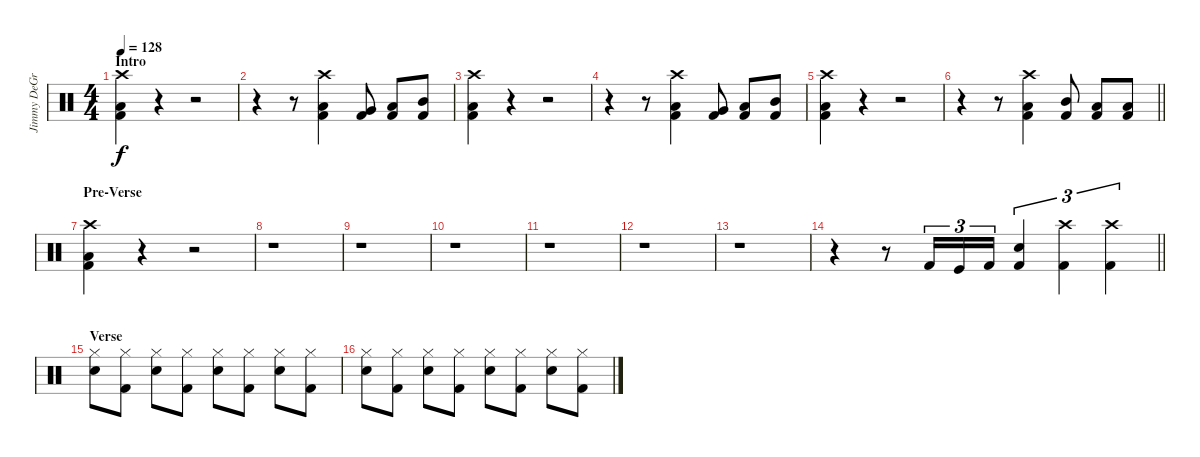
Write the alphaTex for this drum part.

\track ("Jimmy DeGrasso" "Jimmy DeGr") {instrument percussion}
\staff {score}
\articulation defaults
\ts (4 4)
\section ("" "Intro")
\tempo 128
\clef neutral
\ks c
("Crash high (hit)" "Low Floor Tom (hit)" "Kick (hit) 2").4{dy f} r.4 r.2 |
r.4 r.8 ("Crash high (hit)" "Low Floor Tom (hit)" "Kick (hit) 2").4 ("Very Low Tom (hit)" "Kick (hit) 2").8 ("Low Tom (hit)" "Kick (hit) 2").8 ("Mid Tom (hit)" "Kick (hit) 2").8 |
("Crash high (hit)" "Low Floor Tom (hit)" "Kick (hit) 2").4 r.4 r.2 |
r.4 r.8 ("Crash high (hit)" "Low Floor Tom (hit)" "Kick (hit) 2").4 ("Very Low Tom (hit)" "Kick (hit) 2").8 ("Low Tom (hit)" "Kick (hit) 2").8 ("Mid Tom (hit)" "Kick (hit) 2").8 |
("Crash high (hit)" "Low Floor Tom (hit)" "Kick (hit) 2").4 r.4 r.2 |
\barLineRight lightlight
r.4 r.8 ("Crash high (hit)" "Low Floor Tom (hit)" "Kick (hit) 2").4 ("Mid Tom (hit)" "Kick (hit) 2").8 ("Low Tom (hit)" "Kick (hit) 2").8 ("Low Floor Tom (hit)" "Kick (hit) 2").8 |
\section ("" "Pre-Verse")
("Crash high (hit)" "Low Floor Tom (hit)" "Kick (hit) 2").4 r.4 r.2 |
r.1 |
r.1 |
r.1 |
r.1 |
r.1 |
r.1 |
\barLineRight lightlight
r.4 r.8 "Kick (hit) 2".16{tu (3 2)} "Kick (hit)".16{tu (3 2)} "Kick (hit) 2".16{tu (3 2)} ("Snare (hit) 2" "Kick (hit) 2").4{tu (3 2)} ("Crash high (hit)" "Kick (hit) 2").4{tu (3 2)} ("Crash high (hit)" "Kick (hit) 2").4{tu (3 2)} |
\section ("" "Verse")
("Hi-Hat (closed)" "Snare (hit) 2").8 ("Hi-Hat (closed)" "Kick (hit) 2").8 ("Hi-Hat (closed)" "Snare (hit) 2").8 ("Hi-Hat (closed)" "Kick (hit) 2").8 ("Hi-Hat (closed)" "Snare (hit) 2").8 ("Hi-Hat (closed)" "Kick (hit) 2").8 ("Hi-Hat (closed)" "Snare (hit) 2").8 ("Hi-Hat (closed)" "Kick (hit) 2").8 |
("Hi-Hat (closed)" "Snare (hit) 2").8 ("Hi-Hat (closed)" "Kick (hit) 2").8 ("Hi-Hat (closed)" "Snare (hit) 2").8 ("Hi-Hat (closed)" "Kick (hit) 2").8 ("Hi-Hat (closed)" "Snare (hit) 2").8 ("Hi-Hat (closed)" "Kick (hit) 2").8 ("Hi-Hat (closed)" "Snare (hit) 2").8 ("Hi-Hat (closed)" "Kick (hit) 2").8
